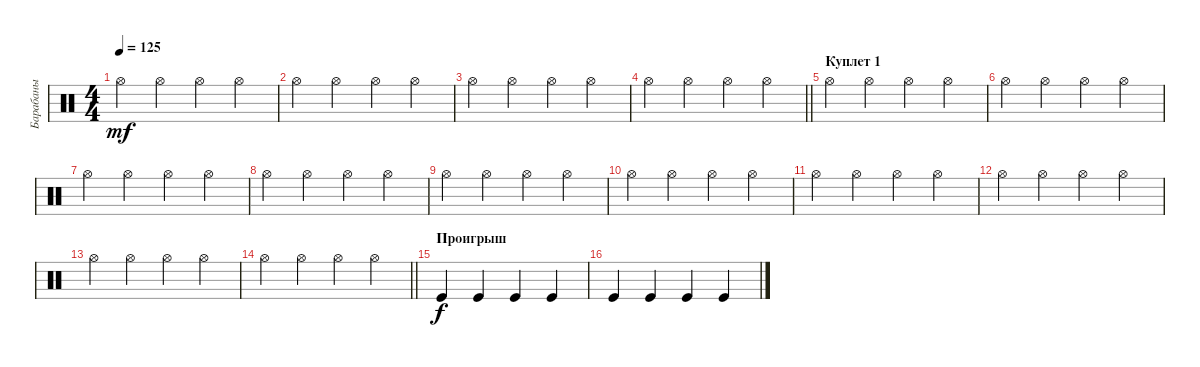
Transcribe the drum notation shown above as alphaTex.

\track ("Барабаны" "Барабаны") {instrument percussion}
\staff {score}
\articulation defaults
\ts (4 4)
\tempo 125
\clef neutral
\ks c "Hi-Hat (open)".4{dy mf} "Hi-Hat (open)".4 "Hi-Hat (open)".4 "Hi-Hat (open)".4
|
"Hi-Hat (open)".4 "Hi-Hat (open)".4 "Hi-Hat (open)".4 "Hi-Hat (open)".4 |
"Hi-Hat (open)".4 "Hi-Hat (open)".4 "Hi-Hat (open)".4 "Hi-Hat (open)".4 |
\barLineRight lightlight "Hi-Hat (open)".4 "Hi-Hat (open)".4 "Hi-Hat (open)".4 "Hi-Hat (open)".4
|
\section ("" "Куплет 1")
"Hi-Hat (open)".4 "Hi-Hat (open)".4 "Hi-Hat (open)".4 "Hi-Hat (open)".4 |
"Hi-Hat (open)".4 "Hi-Hat (open)".4 "Hi-Hat (open)".4 "Hi-Hat (open)".4 |
"Hi-Hat (open)".4 "Hi-Hat (open)".4 "Hi-Hat (open)".4 "Hi-Hat (open)".4 |
"Hi-Hat (open)".4 "Hi-Hat (open)".4 "Hi-Hat (open)".4 "Hi-Hat (open)".4 |
"Hi-Hat (open)".4 "Hi-Hat (open)".4 "Hi-Hat (open)".4 "Hi-Hat (open)".4 |
"Hi-Hat (open)".4 "Hi-Hat (open)".4 "Hi-Hat (open)".4 "Hi-Hat (open)".4 |
"Hi-Hat (open)".4 "Hi-Hat (open)".4 "Hi-Hat (open)".4 "Hi-Hat (open)".4 |
"Hi-Hat (open)".4 "Hi-Hat (open)".4 "Hi-Hat (open)".4 "Hi-Hat (open)".4 |
"Hi-Hat (open)".4 "Hi-Hat (open)".4 "Hi-Hat (open)".4 "Hi-Hat (open)".4 |
\barLineRight lightlight "Hi-Hat (open)".4 "Hi-Hat (open)".4 "Hi-Hat (open)".4 "Hi-Hat (open)".4
|
\section ("" "Проигрыш")
"Kick (hit)".4{dy f} "Kick (hit)".4 "Kick (hit)".4 "Kick (hit)".4 |
"Kick (hit)".4 "Kick (hit)".4 "Kick (hit)".4 "Kick (hit)".4
